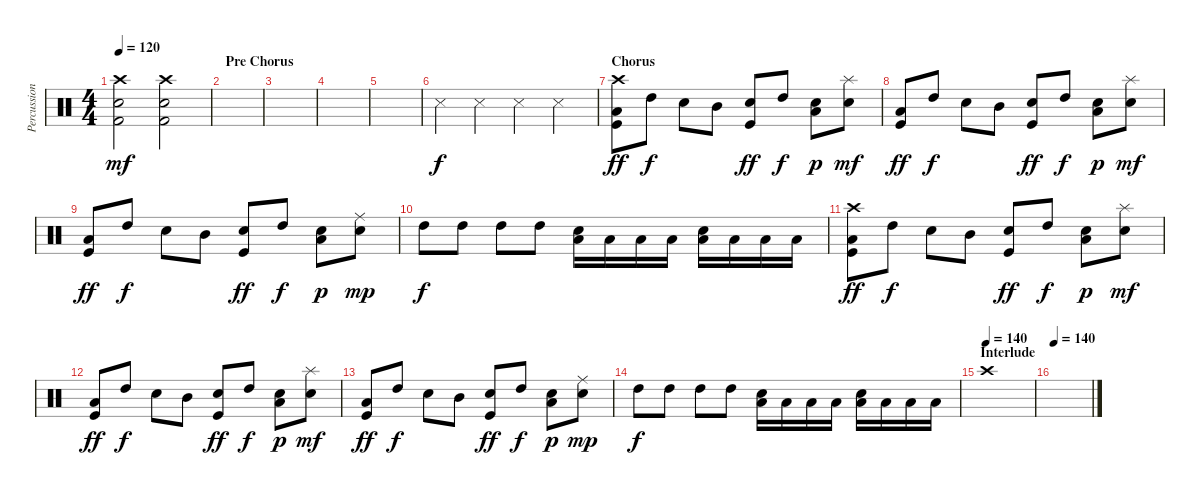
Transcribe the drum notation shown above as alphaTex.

\track ("Percussion" "Percussion") {instrument percussion}
\staff {score}
\articulation defaults
\ts (4 4)
\tempo 120
\clef neutral
\ks c
("Kick (hit) 2" "Snare (hit) 2" "Crash high (hit)").2{dy mf} ("Kick (hit) 2" "Snare (hit) 2" "Crash high (hit)").2 |
\section ("" "Pre Chorus")
|
|
|
|
"Snare (side stick) 3".4{dy f} "Snare (side stick) 3".4 "Snare (side stick) 3".4 "Snare (side stick) 3".4 |
\section ("" "Chorus")
("Kick (hit)" "Low Tom (hit)" "Crash high (hit)").8{dy ff volume 10} "High Tom (hit)".8{dy f} "Snare (hit) 2".8 "Mid Tom (hit)".8 ("Kick (hit)" "Snare (hit) 2").8{dy ff} "High Tom (hit)".8{dy f} ("Snare (hit) 2" "Low Tom (hit)").8{dy p} ("Splash (hit)" "Snare (hit) 2").8{dy mf} |
("Kick (hit)" "Low Tom (hit)").8{dy ff} "High Tom (hit)".8{dy f} "Snare (hit) 2".8 "Mid Tom (hit)".8 ("Kick (hit)" "Snare (hit) 2").8{dy ff} "High Tom (hit)".8{dy f} ("Snare (hit) 2" "Low Tom (hit)").8{dy p} ("Splash (hit)" "Snare (hit) 2").8{dy mf} |
("Kick (hit)" "Low Tom (hit)").8{dy ff} "High Tom (hit)".8{dy f} "Snare (hit) 2".8 "Mid Tom (hit)".8 ("Kick (hit)" "Snare (hit) 2").8{dy ff} "High Tom (hit)".8{dy f} ("Snare (hit) 2" "Low Tom (hit)").8{dy p} ("Ride (middle)" "Snare (hit) 2").8{dy mp} |
"High Tom (hit)".8{dy f} "High Tom (hit)".8 "High Tom (hit)".8 "High Tom (hit)".8 ("Low Tom (hit)" "Snare (hit) 2").16 "Low Tom (hit)".16 "Low Tom (hit)".16 "Low Tom (hit)".16 ("Low Tom (hit)" "Snare (hit) 2").16 "Low Tom (hit)".16 "Low Tom (hit)".16 "Low Tom (hit)".16 |
("Kick (hit)" "Low Tom (hit)" "Crash high (hit)").8{dy ff} "High Tom (hit)".8{dy f} "Snare (hit) 2".8 "Mid Tom (hit)".8 ("Kick (hit)" "Snare (hit) 2").8{dy ff} "High Tom (hit)".8{dy f} ("Snare (hit) 2" "Low Tom (hit)").8{dy p} ("Splash (hit)" "Snare (hit) 2").8{dy mf} |
("Kick (hit)" "Low Tom (hit)").8{dy ff} "High Tom (hit)".8{dy f} "Snare (hit) 2".8 "Mid Tom (hit)".8 ("Kick (hit)" "Snare (hit) 2").8{dy ff} "High Tom (hit)".8{dy f} ("Snare (hit) 2" "Low Tom (hit)").8{dy p} ("Splash (hit)" "Snare (hit) 2").8{dy mf} |
("Kick (hit)" "Low Tom (hit)").8{dy ff} "High Tom (hit)".8{dy f} "Snare (hit) 2".8 "Mid Tom (hit)".8 ("Kick (hit)" "Snare (hit) 2").8{dy ff} "High Tom (hit)".8{dy f} ("Snare (hit) 2" "Low Tom (hit)").8{dy p} ("Ride (middle)" "Snare (hit) 2").8{dy mp} |
"High Tom (hit)".8{dy f} "High Tom (hit)".8 "High Tom (hit)".8 "High Tom (hit)".8 ("Low Tom (hit)" "Snare (hit) 2").16 "Low Tom (hit)".16 "Low Tom (hit)".16 "Low Tom (hit)".16 ("Low Tom (hit)" "Snare (hit) 2").16 "Low Tom (hit)".16 "Low Tom (hit)".16 "Low Tom (hit)".16 |
\section ("" "Interlude")
\tempo (140)
"Crash high (hit)".1 |
\tempo 140
